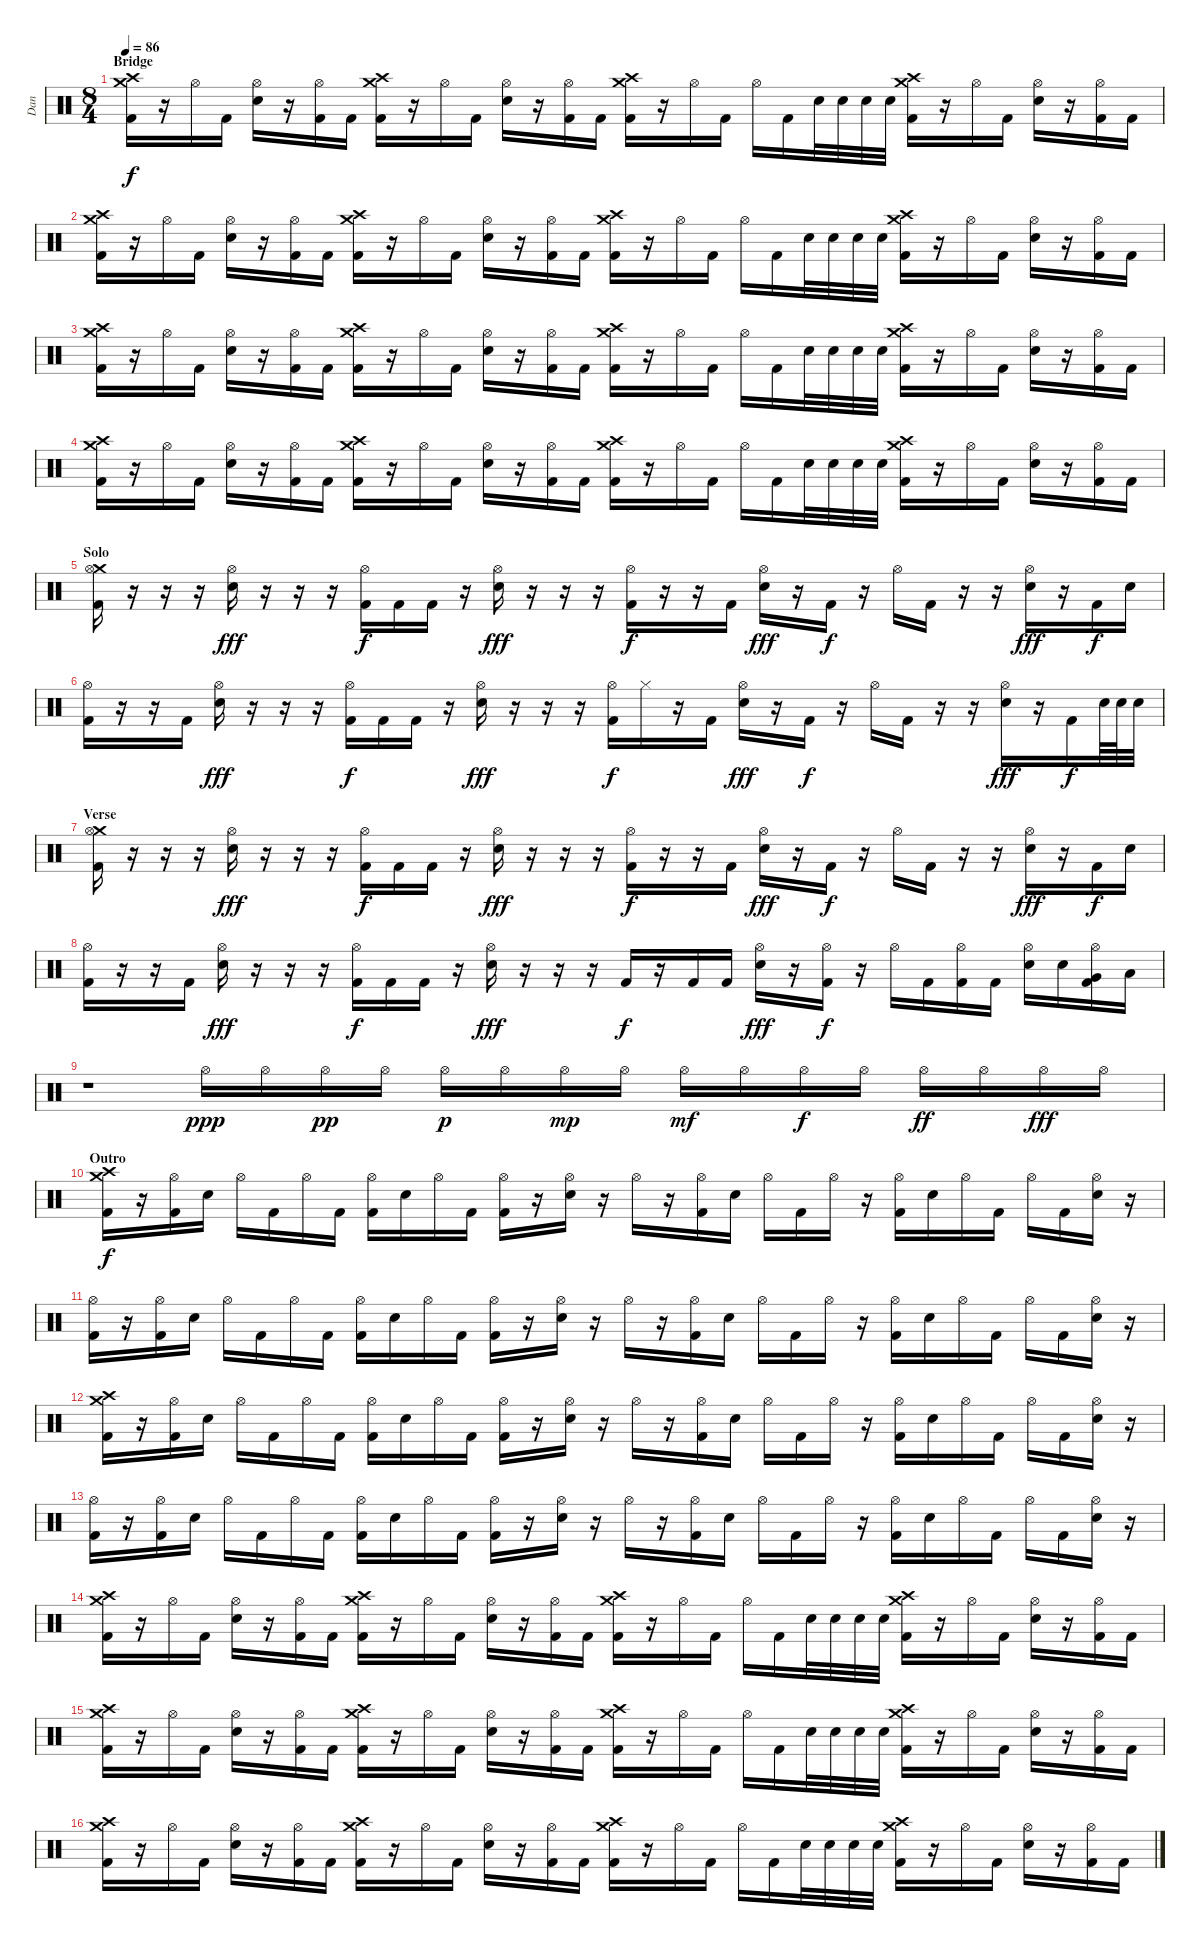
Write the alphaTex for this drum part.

\track ("Dan" "Dan") {instrument percussion}
\staff {score}
\articulation defaults
\ts (8 4)
\section ("" "Bridge")
\tempo 86
\clef neutral
\ks c
("Crash high (hit)" "Crash medium (hit)" "Kick (hit) 2").16{dy f} r.16 "Hi-Hat (open)".16 "Kick (hit) 2".16 ("Hi-Hat (open)" "Electric Snare (hit)").16 r.16 ("Hi-Hat (open)" "Kick (hit) 2").16 "Kick (hit) 2".16 ("Crash high (hit)" "Crash medium (hit)" "Kick (hit) 2").16 r.16 "Hi-Hat (open)".16 "Kick (hit) 2".16 ("Hi-Hat (open)" "Electric Snare (hit)").16 r.16 ("Hi-Hat (open)" "Kick (hit) 2").16 "Kick (hit) 2".16 ("Crash high (hit)" "Crash medium (hit)" "Kick (hit) 2").16 r.16 "Hi-Hat (open)".16 "Kick (hit) 2".16 "Hi-Hat (open)".16 "Kick (hit) 2".16 "Electric Snare (hit)".32 "Electric Snare (hit)".32 "Electric Snare (hit)".32 "Electric Snare (hit)".32 ("Crash high (hit)" "Crash medium (hit)" "Kick (hit) 2").16 r.16 "Hi-Hat (open)".16 "Kick (hit) 2".16 ("Hi-Hat (open)" "Electric Snare (hit)").16 r.16 ("Hi-Hat (open)" "Kick (hit) 2").16 "Kick (hit) 2".16 |
("Crash high (hit)" "Crash medium (hit)" "Kick (hit) 2").16 r.16 "Hi-Hat (open)".16 "Kick (hit) 2".16 ("Hi-Hat (open)" "Electric Snare (hit)").16 r.16 ("Hi-Hat (open)" "Kick (hit) 2").16 "Kick (hit) 2".16 ("Crash high (hit)" "Crash medium (hit)" "Kick (hit) 2").16 r.16 "Hi-Hat (open)".16 "Kick (hit) 2".16 ("Hi-Hat (open)" "Electric Snare (hit)").16 r.16 ("Hi-Hat (open)" "Kick (hit) 2").16 "Kick (hit) 2".16 ("Crash high (hit)" "Crash medium (hit)" "Kick (hit) 2").16 r.16 "Hi-Hat (open)".16 "Kick (hit) 2".16 "Hi-Hat (open)".16 "Kick (hit) 2".16 "Electric Snare (hit)".32 "Electric Snare (hit)".32 "Electric Snare (hit)".32 "Electric Snare (hit)".32 ("Crash high (hit)" "Crash medium (hit)" "Kick (hit) 2").16 r.16 "Hi-Hat (open)".16 "Kick (hit) 2".16 ("Hi-Hat (open)" "Electric Snare (hit)").16 r.16 ("Hi-Hat (open)" "Kick (hit) 2").16 "Kick (hit) 2".16 |
("Crash high (hit)" "Crash medium (hit)" "Kick (hit) 2").16 r.16 "Hi-Hat (open)".16 "Kick (hit) 2".16 ("Hi-Hat (open)" "Electric Snare (hit)").16 r.16 ("Hi-Hat (open)" "Kick (hit) 2").16 "Kick (hit) 2".16 ("Crash high (hit)" "Crash medium (hit)" "Kick (hit) 2").16 r.16 "Hi-Hat (open)".16 "Kick (hit) 2".16 ("Hi-Hat (open)" "Electric Snare (hit)").16 r.16 ("Hi-Hat (open)" "Kick (hit) 2").16 "Kick (hit) 2".16 ("Crash high (hit)" "Crash medium (hit)" "Kick (hit) 2").16 r.16 "Hi-Hat (open)".16 "Kick (hit) 2".16 "Hi-Hat (open)".16 "Kick (hit) 2".16 "Electric Snare (hit)".32 "Electric Snare (hit)".32 "Electric Snare (hit)".32 "Electric Snare (hit)".32 ("Crash high (hit)" "Crash medium (hit)" "Kick (hit) 2").16 r.16 "Hi-Hat (open)".16 "Kick (hit) 2".16 ("Hi-Hat (open)" "Electric Snare (hit)").16 r.16 ("Hi-Hat (open)" "Kick (hit) 2").16 "Kick (hit) 2".16 |
("Crash high (hit)" "Crash medium (hit)" "Kick (hit) 2").16 r.16 "Hi-Hat (open)".16 "Kick (hit) 2".16 ("Hi-Hat (open)" "Electric Snare (hit)").16 r.16 ("Hi-Hat (open)" "Kick (hit) 2").16 "Kick (hit) 2".16 ("Crash high (hit)" "Crash medium (hit)" "Kick (hit) 2").16 r.16 "Hi-Hat (open)".16 "Kick (hit) 2".16 ("Hi-Hat (open)" "Electric Snare (hit)").16 r.16 ("Hi-Hat (open)" "Kick (hit) 2").16 "Kick (hit) 2".16 ("Crash high (hit)" "Crash medium (hit)" "Kick (hit) 2").16 r.16 "Hi-Hat (open)".16 "Kick (hit) 2".16 "Hi-Hat (open)".16 "Kick (hit) 2".16 "Electric Snare (hit)".32 "Electric Snare (hit)".32 "Electric Snare (hit)".32 "Electric Snare (hit)".32 ("Crash high (hit)" "Crash medium (hit)" "Kick (hit) 2").16 r.16 "Hi-Hat (open)".16 "Kick (hit) 2".16 ("Hi-Hat (open)" "Electric Snare (hit)").16 r.16 ("Hi-Hat (open)" "Kick (hit) 2").16 "Kick (hit) 2".16 |
\section ("" "Solo")
("Crash medium (hit)" "Hi-Hat (open)" "Kick (hit) 2").16 r.16 r.16 r.16 ("Hi-Hat (open)" "Electric Snare (hit)").16{dy fff} r.16 r.16 r.16 ("Hi-Hat (open)" "Kick (hit) 2").16{dy f} "Kick (hit) 2".16 "Kick (hit) 2".16 r.16 ("Hi-Hat (open)" "Electric Snare (hit)").16{dy fff} r.16 r.16 r.16 ("Hi-Hat (open)" "Kick (hit) 2").16{dy f} r.16 r.16 "Kick (hit) 2".16 ("Hi-Hat (open)" "Electric Snare (hit)").16{dy fff} r.16 "Kick (hit) 2".16{dy f} r.16 "Hi-Hat (open)".16 "Kick (hit) 2".16 r.16 r.16 ("Hi-Hat (open)" "Electric Snare (hit)").16{dy fff} r.16 "Kick (hit) 2".16{dy f} "Electric Snare (hit)".16 |
("Hi-Hat (open)" "Kick (hit) 2").16 r.16 r.16 "Kick (hit) 2".16 ("Hi-Hat (open)" "Electric Snare (hit)").16{dy fff} r.16 r.16 r.16 ("Hi-Hat (open)" "Kick (hit) 2").16{dy f} "Kick (hit) 2".16 "Kick (hit) 2".16 r.16 ("Hi-Hat (open)" "Electric Snare (hit)").16{dy fff} r.16 r.16 r.16 ("Hi-Hat (open)" "Kick (hit) 2").16{dy f} "Hi-Hat (closed)".16 r.16 "Kick (hit) 2".16 ("Hi-Hat (open)" "Electric Snare (hit)").16{dy fff} r.16 "Kick (hit) 2".16{dy f} r.16 "Hi-Hat (open)".16 "Kick (hit) 2".16 r.16 r.16 ("Hi-Hat (open)" "Electric Snare (hit)").16{dy fff} r.16 "Kick (hit) 2".16{dy f} "Electric Snare (hit)".64 "Electric Snare (hit)".64 "Electric Snare (hit)".32 |
\section ("" "Verse")
("Crash medium (hit)" "Hi-Hat (open)" "Kick (hit) 2").16 r.16 r.16 r.16 ("Hi-Hat (open)" "Electric Snare (hit)").16{dy fff} r.16 r.16 r.16 ("Hi-Hat (open)" "Kick (hit) 2").16{dy f} "Kick (hit) 2".16 "Kick (hit) 2".16 r.16 ("Hi-Hat (open)" "Electric Snare (hit)").16{dy fff} r.16 r.16 r.16 ("Hi-Hat (open)" "Kick (hit) 2").16{dy f} r.16 r.16 "Kick (hit) 2".16 ("Hi-Hat (open)" "Electric Snare (hit)").16{dy fff} r.16 "Kick (hit) 2".16{dy f} r.16 "Hi-Hat (open)".16 "Kick (hit) 2".16 r.16 r.16 ("Hi-Hat (open)" "Electric Snare (hit)").16{dy fff} r.16 "Kick (hit) 2".16{dy f} "Electric Snare (hit)".16 |
("Hi-Hat (open)" "Kick (hit) 2").16 r.16 r.16 "Kick (hit) 2".16 ("Hi-Hat (open)" "Electric Snare (hit)").16{dy fff} r.16 r.16 r.16 ("Hi-Hat (open)" "Kick (hit) 2").16{dy f} "Kick (hit) 2".16 "Kick (hit) 2".16 r.16 ("Hi-Hat (open)" "Electric Snare (hit)").16{dy fff} r.16 r.16 r.16 "Kick (hit) 2".16{dy f} r.16 "Kick (hit) 2".16 "Kick (hit) 2".16 ("Hi-Hat (open)" "Electric Snare (hit)").16{dy fff} r.16 ("Hi-Hat (open)" "Kick (hit) 2").16{dy f} r.16 "Hi-Hat (open)".16 "Kick (hit) 2".16 ("Hi-Hat (open)" "Kick (hit) 2").16 "Kick (hit) 2".16 ("Hi-Hat (open)" "Electric Snare (hit)").16 "Electric Snare (hit)".16 ("Hi-Hat (open)" "Very Low Tom (hit)" "Kick (hit) 2").16 "Low Tom (hit)".16 |
r.1 "Hi-Hat (open)".16{dy ppp} "Hi-Hat (open)".16 "Hi-Hat (open)".16{dy pp} "Hi-Hat (open)".16 "Hi-Hat (open)".16{dy p} "Hi-Hat (open)".16 "Hi-Hat (open)".16{dy mp} "Hi-Hat (open)".16 "Hi-Hat (open)".16{dy mf} "Hi-Hat (open)".16 "Hi-Hat (open)".16{dy f} "Hi-Hat (open)".16 "Hi-Hat (open)".16{dy ff} "Hi-Hat (open)".16 "Hi-Hat (open)".16{dy fff} "Hi-Hat (open)".16 |
\section ("" "Outro")
("Crash medium (hit)" "Crash high (hit)" "Kick (hit) 2").16{dy f} r.16 ("Hi-Hat (open)" "Kick (hit) 2").16 "Electric Snare (hit)".16 "Hi-Hat (open)".16 "Kick (hit) 2".16 "Hi-Hat (open)".16 "Kick (hit) 2".16 ("Hi-Hat (open)" "Kick (hit) 2").16 "Electric Snare (hit)".16 "Hi-Hat (open)".16 "Kick (hit) 2".16 ("Hi-Hat (open)" "Kick (hit) 2").16 r.16 ("Hi-Hat (open)" "Electric Snare (hit)").16 r.16 "Hi-Hat (open)".16 r.16 ("Hi-Hat (open)" "Kick (hit) 2").16 "Electric Snare (hit)".16 "Hi-Hat (open)".16 "Kick (hit) 2".16 "Hi-Hat (open)".16 r.16 ("Hi-Hat (open)" "Kick (hit) 2").16 "Electric Snare (hit)".16 "Hi-Hat (open)".16 "Kick (hit) 2".16 "Hi-Hat (open)".16 "Kick (hit) 2".16 ("Hi-Hat (open)" "Electric Snare (hit)").16 r.16 |
("Hi-Hat (open)" "Kick (hit) 2").16 r.16 ("Hi-Hat (open)" "Kick (hit) 2").16 "Electric Snare (hit)".16 "Hi-Hat (open)".16 "Kick (hit) 2".16 "Hi-Hat (open)".16 "Kick (hit) 2".16 ("Hi-Hat (open)" "Kick (hit) 2").16 "Electric Snare (hit)".16 "Hi-Hat (open)".16 "Kick (hit) 2".16 ("Hi-Hat (open)" "Kick (hit) 2").16 r.16 ("Hi-Hat (open)" "Electric Snare (hit)").16 r.16 "Hi-Hat (open)".16 r.16 ("Hi-Hat (open)" "Kick (hit) 2").16 "Electric Snare (hit)".16 "Hi-Hat (open)".16 "Kick (hit) 2".16 "Hi-Hat (open)".16 r.16 ("Hi-Hat (open)" "Kick (hit) 2").16 "Electric Snare (hit)".16 "Hi-Hat (open)".16 "Kick (hit) 2".16 "Hi-Hat (open)".16 "Kick (hit) 2".16 ("Hi-Hat (open)" "Electric Snare (hit)").16 r.16 |
("Crash medium (hit)" "Crash high (hit)" "Kick (hit) 2").16 r.16 ("Hi-Hat (open)" "Kick (hit) 2").16 "Electric Snare (hit)".16 "Hi-Hat (open)".16 "Kick (hit) 2".16 "Hi-Hat (open)".16 "Kick (hit) 2".16 ("Hi-Hat (open)" "Kick (hit) 2").16 "Electric Snare (hit)".16 "Hi-Hat (open)".16 "Kick (hit) 2".16 ("Hi-Hat (open)" "Kick (hit) 2").16 r.16 ("Hi-Hat (open)" "Electric Snare (hit)").16 r.16 "Hi-Hat (open)".16 r.16 ("Hi-Hat (open)" "Kick (hit) 2").16 "Electric Snare (hit)".16 "Hi-Hat (open)".16 "Kick (hit) 2".16 "Hi-Hat (open)".16 r.16 ("Hi-Hat (open)" "Kick (hit) 2").16 "Electric Snare (hit)".16 "Hi-Hat (open)".16 "Kick (hit) 2".16 "Hi-Hat (open)".16 "Kick (hit) 2".16 ("Hi-Hat (open)" "Electric Snare (hit)").16 r.16 |
("Hi-Hat (open)" "Kick (hit) 2").16 r.16 ("Hi-Hat (open)" "Kick (hit) 2").16 "Electric Snare (hit)".16 "Hi-Hat (open)".16 "Kick (hit) 2".16 "Hi-Hat (open)".16 "Kick (hit) 2".16 ("Hi-Hat (open)" "Kick (hit) 2").16 "Electric Snare (hit)".16 "Hi-Hat (open)".16 "Kick (hit) 2".16 ("Hi-Hat (open)" "Kick (hit) 2").16 r.16 ("Hi-Hat (open)" "Electric Snare (hit)").16 r.16 "Hi-Hat (open)".16 r.16 ("Hi-Hat (open)" "Kick (hit) 2").16 "Electric Snare (hit)".16 "Hi-Hat (open)".16 "Kick (hit) 2".16 "Hi-Hat (open)".16 r.16 ("Hi-Hat (open)" "Kick (hit) 2").16 "Electric Snare (hit)".16 "Hi-Hat (open)".16 "Kick (hit) 2".16 "Hi-Hat (open)".16 "Kick (hit) 2".16 ("Hi-Hat (open)" "Electric Snare (hit)").16 r.16 |
("Crash high (hit)" "Crash medium (hit)" "Kick (hit) 2").16 r.16 "Hi-Hat (open)".16 "Kick (hit) 2".16 ("Hi-Hat (open)" "Electric Snare (hit)").16 r.16 ("Hi-Hat (open)" "Kick (hit) 2").16 "Kick (hit) 2".16 ("Crash high (hit)" "Crash medium (hit)" "Kick (hit) 2").16 r.16 "Hi-Hat (open)".16 "Kick (hit) 2".16 ("Hi-Hat (open)" "Electric Snare (hit)").16 r.16 ("Hi-Hat (open)" "Kick (hit) 2").16 "Kick (hit) 2".16 ("Crash high (hit)" "Crash medium (hit)" "Kick (hit) 2").16 r.16 "Hi-Hat (open)".16 "Kick (hit) 2".16 "Hi-Hat (open)".16 "Kick (hit) 2".16 "Electric Snare (hit)".32 "Electric Snare (hit)".32 "Electric Snare (hit)".32 "Electric Snare (hit)".32 ("Crash high (hit)" "Crash medium (hit)" "Kick (hit) 2").16 r.16 "Hi-Hat (open)".16 "Kick (hit) 2".16 ("Hi-Hat (open)" "Electric Snare (hit)").16 r.16 ("Hi-Hat (open)" "Kick (hit) 2").16 "Kick (hit) 2".16 |
("Crash high (hit)" "Crash medium (hit)" "Kick (hit) 2").16 r.16 "Hi-Hat (open)".16 "Kick (hit) 2".16 ("Hi-Hat (open)" "Electric Snare (hit)").16 r.16 ("Hi-Hat (open)" "Kick (hit) 2").16 "Kick (hit) 2".16 ("Crash high (hit)" "Crash medium (hit)" "Kick (hit) 2").16 r.16 "Hi-Hat (open)".16 "Kick (hit) 2".16 ("Hi-Hat (open)" "Electric Snare (hit)").16 r.16 ("Hi-Hat (open)" "Kick (hit) 2").16 "Kick (hit) 2".16 ("Crash high (hit)" "Crash medium (hit)" "Kick (hit) 2").16 r.16 "Hi-Hat (open)".16 "Kick (hit) 2".16 "Hi-Hat (open)".16 "Kick (hit) 2".16 "Electric Snare (hit)".32 "Electric Snare (hit)".32 "Electric Snare (hit)".32 "Electric Snare (hit)".32 ("Crash high (hit)" "Crash medium (hit)" "Kick (hit) 2").16 r.16 "Hi-Hat (open)".16 "Kick (hit) 2".16 ("Hi-Hat (open)" "Electric Snare (hit)").16 r.16 ("Hi-Hat (open)" "Kick (hit) 2").16 "Kick (hit) 2".16 |
("Crash high (hit)" "Crash medium (hit)" "Kick (hit) 2").16 r.16 "Hi-Hat (open)".16 "Kick (hit) 2".16 ("Hi-Hat (open)" "Electric Snare (hit)").16 r.16 ("Hi-Hat (open)" "Kick (hit) 2").16 "Kick (hit) 2".16 ("Crash high (hit)" "Crash medium (hit)" "Kick (hit) 2").16 r.16 "Hi-Hat (open)".16 "Kick (hit) 2".16 ("Hi-Hat (open)" "Electric Snare (hit)").16 r.16 ("Hi-Hat (open)" "Kick (hit) 2").16 "Kick (hit) 2".16 ("Crash high (hit)" "Crash medium (hit)" "Kick (hit) 2").16 r.16 "Hi-Hat (open)".16 "Kick (hit) 2".16 "Hi-Hat (open)".16 "Kick (hit) 2".16 "Electric Snare (hit)".32 "Electric Snare (hit)".32 "Electric Snare (hit)".32 "Electric Snare (hit)".32 ("Crash high (hit)" "Crash medium (hit)" "Kick (hit) 2").16 r.16 "Hi-Hat (open)".16 "Kick (hit) 2".16 ("Hi-Hat (open)" "Electric Snare (hit)").16 r.16 ("Hi-Hat (open)" "Kick (hit) 2").16 "Kick (hit) 2".16
